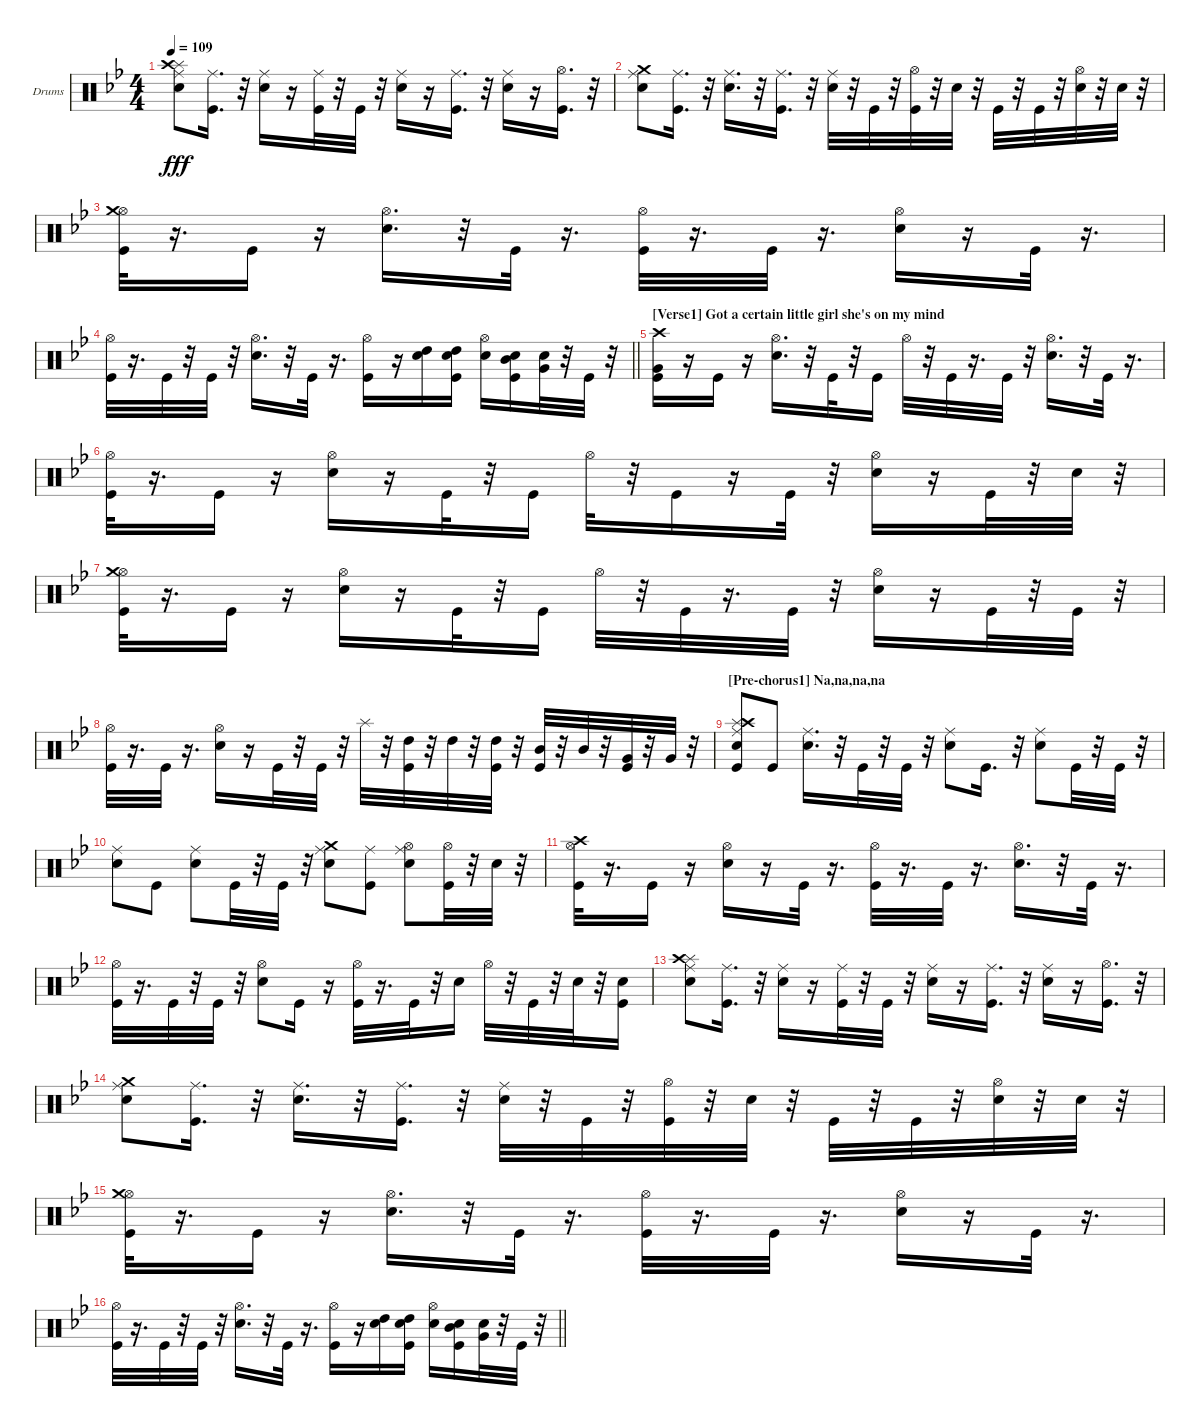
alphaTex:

\bracketExtendMode groupsimilarinstruments
\firstSystemTrackNameOrientation horizontal
\otherSystemsTrackNameOrientation horizontal
\track ("Drumkit" "Drums") {instrument percussion}
\staff {score}
\articulation defaults
\ts (4 4)
\tempo 109
\clef neutral
\ks gminor
("Snare (hit) 2" "Ride (middle)" "Splash (hit)" "Crash high (hit)").8{dy fff} ("Kick (hit)" "Ride (middle)").16{d} r.32 ("Snare (hit) 2" "Ride (middle)").16 r.16 ("Kick (hit)" "Ride (middle)").32 r.32 "Kick (hit)".32 r.32 ("Snare (hit) 2" "Ride (middle)").16 r.16 ("Kick (hit)" "Ride (middle)").16{d} r.32 ("Snare (hit) 2" "Ride (middle)").16 r.16 ("Kick (hit)" "Hi-Hat (open)").16{d} r.32 |
("Snare (hit) 2" "Crash medium (hit)" "Ride (middle)").8 ("Kick (hit)" "Ride (middle)").16{d} r.32 ("Snare (hit) 2" "Ride (middle)").16{d} r.32 ("Kick (hit)" "Ride (middle)").16{d} r.32 ("Snare (hit) 2" "Ride (middle)").32 r.32 "Kick (hit)".32 r.32 ("Kick (hit)" "Hi-Hat (open)").32 r.32 "Snare (hit) 2".32 r.32 "Kick (hit)".32 r.32 "Kick (hit)".32 r.32 ("Snare (hit) 2" "Hi-Hat (open)").32 r.32 "Snare (hit) 2".32 r.32 |
("Kick (hit)" "Hi-Hat (open)" "Crash medium (hit)").32 r.16{d} "Kick (hit)".16 r.16 ("Snare (hit) 2" "Hi-Hat (open)").16{d} r.32 "Kick (hit)".32 r.16{d} ("Kick (hit)" "Hi-Hat (open)").32 r.16{d} "Kick (hit)".32 r.16{d} ("Snare (hit) 2" "Hi-Hat (open)").16 r.16 "Kick (hit)".32 r.16{d} |
\barLineRight lightlight
("Kick (hit)" "Hi-Hat (open)").32 r.16{d} "Kick (hit)".32 r.32 "Kick (hit)".32 r.32 ("Snare (hit) 2" "Hi-Hat (open)").16{d} r.32 "Kick (hit)".32 r.16{d} ("Kick (hit)" "Hi-Hat (open)").16 r.16 ("Snare (hit) 2" "High Tom (hit)").16 ("Kick (hit)" "Snare (hit) 2" "High Tom (hit)").16 ("Snare (hit) 2" "Hi-Hat (open)").16 ("Kick (hit)" "Snare (hit) 2" "Mid Tom (hit)").16 ("Snare (hit) 2" "Very Low Tom (hit)").32 r.32 "Kick (hit)".32 r.32 |
\section ("" "[Verse1] Got a certain little girl she's on my mind")
("Kick (hit)" "Very Low Tom (hit)" "Crash high (hit)").16 r.16 "Kick (hit)".16 r.16 ("Snare (hit) 2" "Hi-Hat (open)").16{d} r.32 "Kick (hit)".32 r.32 "Kick (hit)".16 "Hi-Hat (open)".32 r.32 "Kick (hit)".32 r.16{d} "Kick (hit)".32 r.32 ("Snare (hit) 2" "Hi-Hat (open)").16{d} r.32 "Kick (hit)".32 r.16{d} |
("Kick (hit)" "Hi-Hat (open)").32 r.16{d} "Kick (hit)".16 r.16 ("Snare (hit) 2" "Hi-Hat (open)").16 r.16 "Kick (hit)".32 r.32 "Kick (hit)".16 "Hi-Hat (open)".32 r.32 "Kick (hit)".16 r.16 "Kick (hit)".32 r.32 ("Snare (hit) 2" "Hi-Hat (open)").16 r.16 "Kick (hit)".32 r.32 "Snare (hit) 2".32 r.32 |
("Kick (hit)" "Hi-Hat (open)" "Crash medium (hit)").32 r.16{d} "Kick (hit)".16 r.16 ("Snare (hit) 2" "Hi-Hat (open)").16 r.16 "Kick (hit)".32 r.32 "Kick (hit)".16 "Hi-Hat (open)".32 r.32 "Kick (hit)".32 r.16{d} "Kick (hit)".32 r.32 ("Snare (hit) 2" "Hi-Hat (open)").16 r.16 "Kick (hit)".32 r.32 "Kick (hit)".32 r.32 |
("Kick (hit)" "Hi-Hat (open)").32 r.16{d} "Kick (hit)".32 r.16{d} ("Snare (hit) 2" "Hi-Hat (open)").16 r.16 "Kick (hit)".32 r.32 "Kick (hit)".32 r.32 "Splash (hit)".32 r.32 ("Kick (hit)" "High Tom (hit)").32 r.32 "High Tom (hit)".32 r.32 ("Kick (hit)" "High Tom (hit)").32 r.32 ("Kick (hit)" "Mid Tom (hit)").32 r.32 "Mid Tom (hit)".32 r.32 ("Kick (hit)" "Very Low Tom (hit)").32 r.32 "Very Low Tom (hit)".32 r.32 |
\section ("" "[Pre-chorus1] Na,na,na,na")
("Kick (hit)" "Snare (hit) 2" "Ride (middle)" "Splash (hit)" "Crash high (hit)").8 "Kick (hit)".8 ("Snare (hit) 2" "Ride (middle)").16{d} r.32 "Kick (hit)".32 r.32 "Kick (hit)".32 r.32 ("Snare (hit) 2" "Ride (middle)").8 "Kick (hit)".16{d} r.32 ("Snare (hit) 2" "Ride (middle)").8 "Kick (hit)".32 r.32 "Kick (hit)".32 r.32 |
("Snare (hit) 2" "Ride (middle)").8 "Kick (hit)".8 ("Snare (hit) 2" "Ride (middle)").8 "Kick (hit)".32 r.32 "Kick (hit)".32 r.32 ("Snare (hit) 2" "Crash medium (hit)" "Ride (middle)").8 ("Kick (hit)" "Ride (middle)").8 ("Snare (hit) 2" "Hi-Hat (open)" "Ride (middle)").8 ("Kick (hit)" "Hi-Hat (open)").32 r.32 "Snare (hit) 2".32 r.32 |
("Kick (hit)" "Hi-Hat (open)" "Crash high (hit)").32 r.16{d} "Kick (hit)".16 r.16 ("Snare (hit) 2" "Hi-Hat (open)").16 r.16 "Kick (hit)".32 r.16{d} ("Kick (hit)" "Hi-Hat (open)").32 r.16{d} "Kick (hit)".32 r.16{d} ("Snare (hit) 2" "Hi-Hat (open)").16{d} r.32 "Kick (hit)".32 r.16{d} |
("Kick (hit)" "Hi-Hat (open)").32 r.16{d} "Kick (hit)".32 r.32 "Kick (hit)".32 r.32 ("Snare (hit) 2" "Hi-Hat (open)").8 "Kick (hit)".16 r.16 ("Kick (hit)" "Hi-Hat (open)").32 r.16{d} "Kick (hit)".32 r.32 "Snare (hit) 2".16 "Hi-Hat (open)".32 r.32 "Kick (hit)".32 r.32 "Snare (hit) 2".32 r.32 ("Kick (hit)" "Snare (hit) 2").16 |
("Snare (hit) 2" "Ride (middle)" "Splash (hit)" "Crash high (hit)").8 ("Kick (hit)" "Ride (middle)").16{d} r.32 ("Snare (hit) 2" "Ride (middle)").16 r.16 ("Kick (hit)" "Ride (middle)").32 r.32 "Kick (hit)".32 r.32 ("Snare (hit) 2" "Ride (middle)").16 r.16 ("Kick (hit)" "Ride (middle)").16{d} r.32 ("Snare (hit) 2" "Ride (middle)").16 r.16 ("Kick (hit)" "Hi-Hat (open)").16{d} r.32 |
("Snare (hit) 2" "Crash medium (hit)" "Ride (middle)").8 ("Kick (hit)" "Ride (middle)").16{d} r.32 ("Snare (hit) 2" "Ride (middle)").16{d} r.32 ("Kick (hit)" "Ride (middle)").16{d} r.32 ("Snare (hit) 2" "Ride (middle)").32 r.32 "Kick (hit)".32 r.32 ("Kick (hit)" "Hi-Hat (open)").32 r.32 "Snare (hit) 2".32 r.32 "Kick (hit)".32 r.32 "Kick (hit)".32 r.32 ("Snare (hit) 2" "Hi-Hat (open)").32 r.32 "Snare (hit) 2".32 r.32 |
("Kick (hit)" "Hi-Hat (open)" "Crash medium (hit)").32 r.16{d} "Kick (hit)".16 r.16 ("Snare (hit) 2" "Hi-Hat (open)").16{d} r.32 "Kick (hit)".32 r.16{d} ("Kick (hit)" "Hi-Hat (open)").32 r.16{d} "Kick (hit)".32 r.16{d} ("Snare (hit) 2" "Hi-Hat (open)").16 r.16 "Kick (hit)".32 r.16{d} |
\barLineRight lightlight
("Kick (hit)" "Hi-Hat (open)").32 r.16{d} "Kick (hit)".32 r.32 "Kick (hit)".32 r.32 ("Snare (hit) 2" "Hi-Hat (open)").16{d} r.32 "Kick (hit)".32 r.16{d} ("Kick (hit)" "Hi-Hat (open)").16 r.16 ("Snare (hit) 2" "High Tom (hit)").16 ("Kick (hit)" "Snare (hit) 2" "High Tom (hit)").16 ("Snare (hit) 2" "Hi-Hat (open)").16 ("Kick (hit)" "Snare (hit) 2" "Mid Tom (hit)").16 ("Snare (hit) 2" "Very Low Tom (hit)").32 r.32 "Kick (hit)".32 r.32
